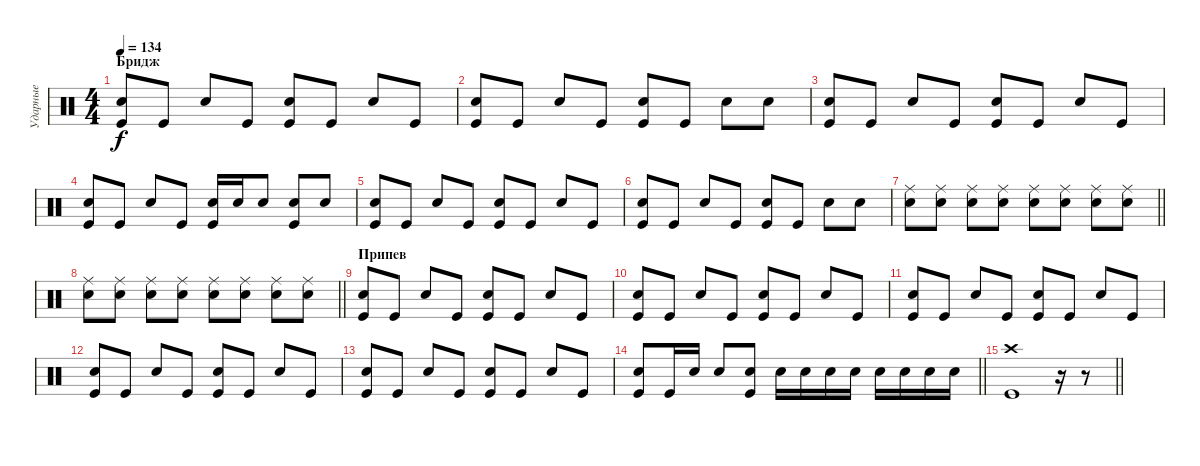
\track ("Ударные" "Ударные") {instrument percussion}
\staff {score}
\articulation defaults
\ts (4 4)
\section ("" "Бридж")
\tempo 134
\clef neutral
\ks c
("Snare (hit) 2" "Kick (hit)").8{dy f} "Kick (hit)".8 "Snare (hit) 2".8 "Kick (hit)".8 ("Snare (hit) 2" "Kick (hit)").8 "Kick (hit)".8 "Snare (hit) 2".8 "Kick (hit)".8 |
("Snare (hit) 2" "Kick (hit)").8 "Kick (hit)".8 "Snare (hit) 2".8 "Kick (hit)".8 ("Snare (hit) 2" "Kick (hit)").8 "Kick (hit)".8 "Snare (hit) 2".8 "Snare (hit) 2".8 |
("Snare (hit) 2" "Kick (hit)").8 "Kick (hit)".8 "Snare (hit) 2".8 "Kick (hit)".8 ("Snare (hit) 2" "Kick (hit)").8 "Kick (hit)".8 "Snare (hit) 2".8 "Kick (hit)".8 |
("Snare (hit) 2" "Kick (hit)").8 "Kick (hit)".8 "Snare (hit) 2".8 "Kick (hit)".8 ("Snare (hit) 2" "Kick (hit)").16 "Snare (hit) 2".16 "Snare (hit) 2".8 ("Snare (hit) 2" "Kick (hit)").8 "Snare (hit) 2".8 |
("Snare (hit) 2" "Kick (hit)").8 "Kick (hit)".8 "Snare (hit) 2".8 "Kick (hit)".8 ("Snare (hit) 2" "Kick (hit)").8 "Kick (hit)".8 "Snare (hit) 2".8 "Kick (hit)".8 |
("Snare (hit) 2" "Kick (hit)").8 "Kick (hit)".8 "Snare (hit) 2".8 "Kick (hit)".8 ("Snare (hit) 2" "Kick (hit)").8 "Kick (hit)".8 "Snare (hit) 2".8 "Snare (hit) 2".8 |
\barLineRight lightlight
("Ride (middle)" "Snare (hit) 2").8 ("Ride (middle)" "Snare (hit) 2").8 ("Ride (middle)" "Snare (hit) 2").8 ("Ride (middle)" "Snare (hit) 2").8 ("Ride (middle)" "Snare (hit) 2").8 ("Ride (middle)" "Snare (hit) 2").8 ("Ride (middle)" "Snare (hit) 2").8 ("Ride (middle)" "Snare (hit) 2").8 |
\barLineRight lightlight
("Ride (middle)" "Snare (hit) 2").8 ("Ride (middle)" "Snare (hit) 2").8 ("Ride (middle)" "Snare (hit) 2").8 ("Ride (middle)" "Snare (hit) 2").8 ("Ride (middle)" "Snare (hit) 2").8 ("Ride (middle)" "Snare (hit) 2").8 ("Ride (middle)" "Snare (hit) 2").8 ("Ride (middle)" "Snare (hit) 2").8 |
\section ("" "Припев")
("Snare (hit) 2" "Kick (hit)").8 "Kick (hit)".8 "Snare (hit) 2".8 "Kick (hit)".8 ("Snare (hit) 2" "Kick (hit)").8 "Kick (hit)".8 "Snare (hit) 2".8 "Kick (hit)".8 |
("Snare (hit) 2" "Kick (hit)").8 "Kick (hit)".8 "Snare (hit) 2".8 "Kick (hit)".8 ("Snare (hit) 2" "Kick (hit)").8 "Kick (hit)".8 "Snare (hit) 2".8 "Kick (hit)".8 |
("Snare (hit) 2" "Kick (hit)").8 "Kick (hit)".8 "Snare (hit) 2".8 "Kick (hit)".8 ("Snare (hit) 2" "Kick (hit)").8 "Kick (hit)".8 "Snare (hit) 2".8 "Kick (hit)".8 |
("Snare (hit) 2" "Kick (hit)").8 "Kick (hit)".8 "Snare (hit) 2".8 "Kick (hit)".8 ("Snare (hit) 2" "Kick (hit)").8 "Kick (hit)".8 "Snare (hit) 2".8 "Kick (hit)".8 |
("Snare (hit) 2" "Kick (hit)").8 "Kick (hit)".8 "Snare (hit) 2".8 "Kick (hit)".8 ("Snare (hit) 2" "Kick (hit)").8 "Kick (hit)".8 "Snare (hit) 2".8 "Kick (hit)".8 |
\barLineRight lightlight
("Snare (hit) 2" "Kick (hit)").8 "Kick (hit)".16 "Snare (hit) 2".16 "Snare (hit) 2".8 ("Snare (hit) 2" "Kick (hit)").8 "Snare (hit) 2".16 "Snare (hit) 2".16 "Snare (hit) 2".16 "Snare (hit) 2".16 "Snare (hit) 2".16 "Snare (hit) 2".16 "Snare (hit) 2".16 "Snare (hit) 2".16 |
\barLineRight lightlight
("Kick (hit)" "Crash high (hit)").1 r.16 r.8
